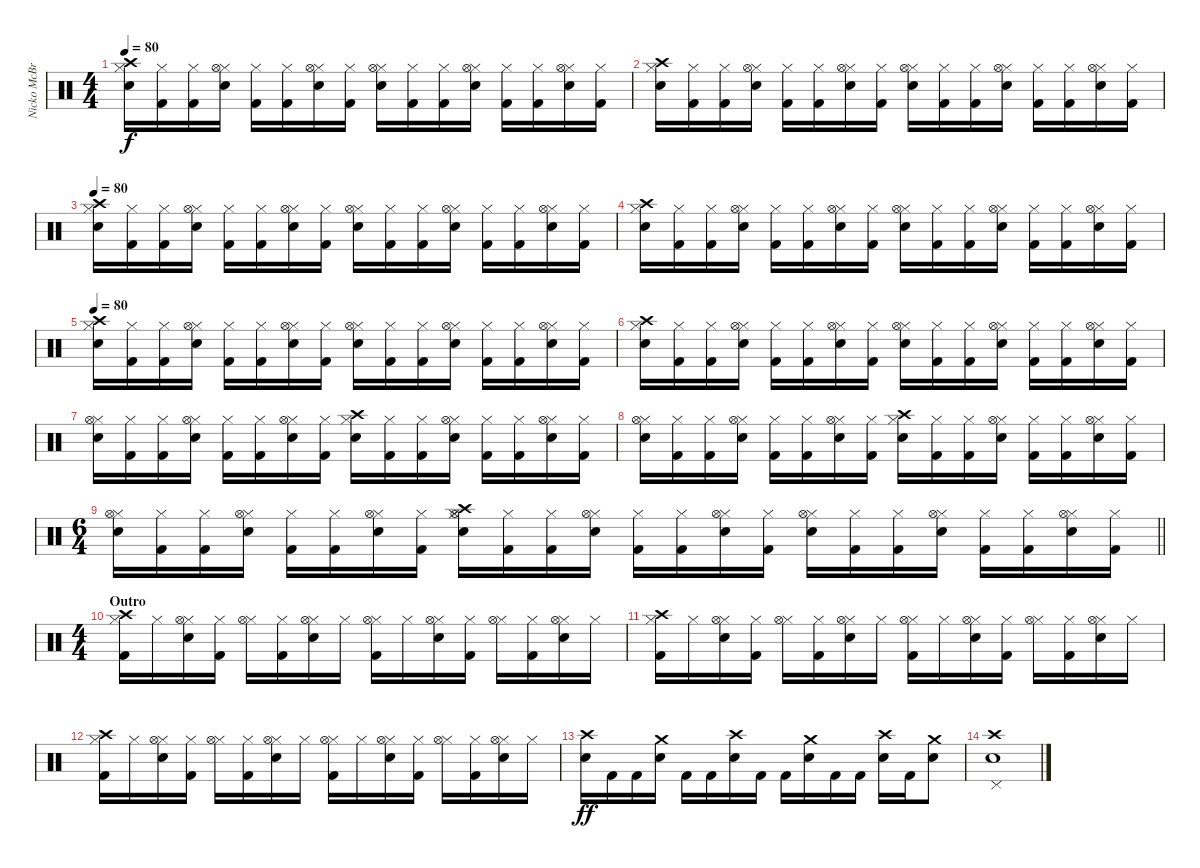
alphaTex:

\track ("Nicko McBrain" "Nicko McBr") {instrument percussion}
\staff {score}
\articulation defaults
\ts (4 4)
\tempo 80
\clef neutral
\ks c
("Snare (hit) 2" "Hi-Hat (closed)" "Crash high (hit)").16{dy f} ("Kick (hit) 2" "Hi-Hat (closed)").16 ("Kick (hit) 2" "Hi-Hat (closed)").16 ("Snare (hit) 2" "Hi-Hat (closed)" "Hi-Hat (open)").16 ("Kick (hit) 2" "Hi-Hat (closed)").16 ("Kick (hit) 2" "Hi-Hat (closed)").16 ("Snare (hit) 2" "Hi-Hat (closed)" "Hi-Hat (open)").16 ("Kick (hit) 2" "Hi-Hat (closed)").16 ("Snare (hit) 2" "Hi-Hat (closed)" "Hi-Hat (open)").16 ("Kick (hit) 2" "Hi-Hat (closed)").16 ("Kick (hit) 2" "Hi-Hat (closed)").16 ("Snare (hit) 2" "Hi-Hat (closed)" "Hi-Hat (open)").16 ("Kick (hit) 2" "Hi-Hat (closed)").16 ("Kick (hit) 2" "Hi-Hat (closed)").16 ("Snare (hit) 2" "Hi-Hat (closed)" "Hi-Hat (open)").16 ("Kick (hit) 2" "Hi-Hat (closed)").16 |
("Snare (hit) 2" "Hi-Hat (closed)" "Crash high (hit)").16 ("Kick (hit) 2" "Hi-Hat (closed)").16 ("Kick (hit) 2" "Hi-Hat (closed)").16 ("Snare (hit) 2" "Hi-Hat (closed)" "Hi-Hat (open)").16 ("Kick (hit) 2" "Hi-Hat (closed)").16 ("Kick (hit) 2" "Hi-Hat (closed)").16 ("Snare (hit) 2" "Hi-Hat (closed)" "Hi-Hat (open)").16 ("Kick (hit) 2" "Hi-Hat (closed)").16 ("Snare (hit) 2" "Hi-Hat (closed)" "Hi-Hat (open)").16 ("Kick (hit) 2" "Hi-Hat (closed)").16 ("Kick (hit) 2" "Hi-Hat (closed)").16 ("Snare (hit) 2" "Hi-Hat (closed)" "Hi-Hat (open)").16 ("Kick (hit) 2" "Hi-Hat (closed)").16 ("Kick (hit) 2" "Hi-Hat (closed)").16 ("Snare (hit) 2" "Hi-Hat (closed)" "Hi-Hat (open)").16 ("Kick (hit) 2" "Hi-Hat (closed)").16 |
\tempo 80
("Snare (hit) 2" "Hi-Hat (closed)" "Crash high (hit)").16 ("Kick (hit) 2" "Hi-Hat (closed)").16 ("Kick (hit) 2" "Hi-Hat (closed)").16 ("Snare (hit) 2" "Hi-Hat (closed)" "Hi-Hat (open)").16 ("Kick (hit) 2" "Hi-Hat (closed)").16 ("Kick (hit) 2" "Hi-Hat (closed)").16 ("Snare (hit) 2" "Hi-Hat (closed)" "Hi-Hat (open)").16 ("Kick (hit) 2" "Hi-Hat (closed)").16 ("Snare (hit) 2" "Hi-Hat (closed)" "Hi-Hat (open)").16 ("Kick (hit) 2" "Hi-Hat (closed)").16 ("Kick (hit) 2" "Hi-Hat (closed)").16 ("Snare (hit) 2" "Hi-Hat (closed)" "Hi-Hat (open)").16 ("Kick (hit) 2" "Hi-Hat (closed)").16 ("Kick (hit) 2" "Hi-Hat (closed)").16 ("Snare (hit) 2" "Hi-Hat (closed)" "Hi-Hat (open)").16 ("Kick (hit) 2" "Hi-Hat (closed)").16 |
("Snare (hit) 2" "Hi-Hat (closed)" "Crash high (hit)").16 ("Kick (hit) 2" "Hi-Hat (closed)").16 ("Kick (hit) 2" "Hi-Hat (closed)").16 ("Snare (hit) 2" "Hi-Hat (closed)" "Hi-Hat (open)").16 ("Kick (hit) 2" "Hi-Hat (closed)").16 ("Kick (hit) 2" "Hi-Hat (closed)").16 ("Snare (hit) 2" "Hi-Hat (closed)" "Hi-Hat (open)").16 ("Kick (hit) 2" "Hi-Hat (closed)").16 ("Snare (hit) 2" "Hi-Hat (closed)" "Hi-Hat (open)").16 ("Kick (hit) 2" "Hi-Hat (closed)").16 ("Kick (hit) 2" "Hi-Hat (closed)").16 ("Snare (hit) 2" "Hi-Hat (closed)" "Hi-Hat (open)").16 ("Kick (hit) 2" "Hi-Hat (closed)").16 ("Kick (hit) 2" "Hi-Hat (closed)").16 ("Snare (hit) 2" "Hi-Hat (closed)" "Hi-Hat (open)").16 ("Kick (hit) 2" "Hi-Hat (closed)").16 |
\tempo 80
("Snare (hit) 2" "Hi-Hat (closed)" "Crash high (hit)").16 ("Kick (hit) 2" "Hi-Hat (closed)").16 ("Kick (hit) 2" "Hi-Hat (closed)").16 ("Snare (hit) 2" "Hi-Hat (closed)" "Hi-Hat (open)").16 ("Kick (hit) 2" "Hi-Hat (closed)").16 ("Kick (hit) 2" "Hi-Hat (closed)").16 ("Snare (hit) 2" "Hi-Hat (closed)" "Hi-Hat (open)").16 ("Kick (hit) 2" "Hi-Hat (closed)").16 ("Snare (hit) 2" "Hi-Hat (closed)" "Hi-Hat (open)").16 ("Kick (hit) 2" "Hi-Hat (closed)").16 ("Kick (hit) 2" "Hi-Hat (closed)").16 ("Snare (hit) 2" "Hi-Hat (closed)" "Hi-Hat (open)").16 ("Kick (hit) 2" "Hi-Hat (closed)").16 ("Kick (hit) 2" "Hi-Hat (closed)").16 ("Snare (hit) 2" "Hi-Hat (closed)" "Hi-Hat (open)").16 ("Kick (hit) 2" "Hi-Hat (closed)").16 |
("Snare (hit) 2" "Hi-Hat (closed)" "Crash high (hit)").16 ("Kick (hit) 2" "Hi-Hat (closed)").16 ("Kick (hit) 2" "Hi-Hat (closed)").16 ("Snare (hit) 2" "Hi-Hat (closed)" "Hi-Hat (open)").16 ("Kick (hit) 2" "Hi-Hat (closed)").16 ("Kick (hit) 2" "Hi-Hat (closed)").16 ("Snare (hit) 2" "Hi-Hat (closed)" "Hi-Hat (open)").16 ("Kick (hit) 2" "Hi-Hat (closed)").16 ("Snare (hit) 2" "Hi-Hat (closed)" "Hi-Hat (open)").16 ("Kick (hit) 2" "Hi-Hat (closed)").16 ("Kick (hit) 2" "Hi-Hat (closed)").16 ("Snare (hit) 2" "Hi-Hat (closed)" "Hi-Hat (open)").16 ("Kick (hit) 2" "Hi-Hat (closed)").16 ("Kick (hit) 2" "Hi-Hat (closed)").16 ("Snare (hit) 2" "Hi-Hat (closed)" "Hi-Hat (open)").16 ("Kick (hit) 2" "Hi-Hat (closed)").16 |
("Snare (hit) 2" "Hi-Hat (closed)" "Hi-Hat (open)").16 ("Kick (hit) 2" "Hi-Hat (closed)").16 ("Kick (hit) 2" "Hi-Hat (closed)").16 ("Snare (hit) 2" "Hi-Hat (closed)" "Hi-Hat (open)").16 ("Kick (hit) 2" "Hi-Hat (closed)").16 ("Kick (hit) 2" "Hi-Hat (closed)").16 ("Snare (hit) 2" "Hi-Hat (closed)" "Hi-Hat (open)").16 ("Kick (hit) 2" "Hi-Hat (closed)").16 ("Snare (hit) 2" "Hi-Hat (closed)" "Crash high (hit)").16 ("Kick (hit) 2" "Hi-Hat (closed)").16 ("Kick (hit) 2" "Hi-Hat (closed)").16 ("Snare (hit) 2" "Hi-Hat (closed)" "Hi-Hat (open)").16 ("Kick (hit) 2" "Hi-Hat (closed)").16 ("Kick (hit) 2" "Hi-Hat (closed)").16 ("Snare (hit) 2" "Hi-Hat (closed)" "Hi-Hat (open)").16 ("Kick (hit) 2" "Hi-Hat (closed)").16 |
("Snare (hit) 2" "Hi-Hat (closed)" "Hi-Hat (open)").16 ("Kick (hit) 2" "Hi-Hat (closed)").16 ("Kick (hit) 2" "Hi-Hat (closed)").16 ("Snare (hit) 2" "Hi-Hat (closed)" "Hi-Hat (open)").16 ("Kick (hit) 2" "Hi-Hat (closed)").16 ("Kick (hit) 2" "Hi-Hat (closed)").16 ("Snare (hit) 2" "Hi-Hat (closed)" "Hi-Hat (open)").16 ("Kick (hit) 2" "Hi-Hat (closed)").16 ("Snare (hit) 2" "Hi-Hat (closed)" "Crash high (hit)").16 ("Kick (hit) 2" "Hi-Hat (closed)").16 ("Kick (hit) 2" "Hi-Hat (closed)").16 ("Snare (hit) 2" "Hi-Hat (closed)" "Hi-Hat (open)").16 ("Kick (hit) 2" "Hi-Hat (closed)").16 ("Kick (hit) 2" "Hi-Hat (closed)").16 ("Snare (hit) 2" "Hi-Hat (closed)" "Hi-Hat (open)").16 ("Kick (hit) 2" "Hi-Hat (closed)").16 |
\ts (6 4)
\barLineRight lightlight
("Snare (hit) 2" "Hi-Hat (closed)" "Hi-Hat (open)").16 ("Kick (hit) 2" "Hi-Hat (closed)").16 ("Kick (hit) 2" "Hi-Hat (closed)").16 ("Snare (hit) 2" "Hi-Hat (closed)" "Hi-Hat (open)").16 ("Kick (hit) 2" "Hi-Hat (closed)").16 ("Kick (hit) 2" "Hi-Hat (closed)").16 ("Snare (hit) 2" "Hi-Hat (closed)" "Hi-Hat (open)").16 ("Kick (hit) 2" "Hi-Hat (closed)").16 ("Snare (hit) 2" "Hi-Hat (closed)" "Hi-Hat (open)" "Crash high (hit)").16 ("Kick (hit) 2" "Hi-Hat (closed)").16 ("Kick (hit) 2" "Hi-Hat (closed)").16 ("Snare (hit) 2" "Hi-Hat (closed)" "Hi-Hat (open)").16 ("Kick (hit) 2" "Hi-Hat (closed)").16 ("Kick (hit) 2" "Hi-Hat (closed)").16 ("Snare (hit) 2" "Hi-Hat (closed)" "Hi-Hat (open)").16 ("Kick (hit) 2" "Hi-Hat (closed)").16 ("Snare (hit) 2" "Hi-Hat (closed)" "Hi-Hat (open)").16 ("Kick (hit) 2" "Hi-Hat (closed)").16 ("Kick (hit) 2" "Hi-Hat (closed)").16 ("Snare (hit) 2" "Hi-Hat (closed)" "Hi-Hat (open)").16 ("Kick (hit) 2" "Hi-Hat (closed)").16 ("Kick (hit) 2" "Hi-Hat (closed)").16 ("Snare (hit) 2" "Hi-Hat (closed)" "Hi-Hat (open)").16 ("Kick (hit) 2" "Hi-Hat (closed)").16 |
\ts (4 4)
\section ("" "Outro")
("Kick (hit) 2" "Hi-Hat (closed)" "Crash high (hit)").16 "Hi-Hat (closed)".16 ("Snare (hit) 2" "Hi-Hat (closed)" "Hi-Hat (open)").16 ("Kick (hit) 2" "Hi-Hat (closed)").16 ("Hi-Hat (closed)" "Hi-Hat (open)").16 ("Kick (hit) 2" "Hi-Hat (closed)").16 ("Snare (hit) 2" "Hi-Hat (closed)" "Hi-Hat (open)").16 "Hi-Hat (closed)".16 ("Kick (hit) 2" "Hi-Hat (closed)" "Hi-Hat (open)").16 "Hi-Hat (closed)".16 ("Snare (hit) 2" "Hi-Hat (closed)" "Hi-Hat (open)").16 ("Kick (hit) 2" "Hi-Hat (closed)").16 ("Hi-Hat (closed)" "Hi-Hat (open)").16 ("Kick (hit) 2" "Hi-Hat (closed)").16 ("Snare (hit) 2" "Hi-Hat (closed)" "Hi-Hat (open)").16 "Hi-Hat (closed)".16 |
("Kick (hit) 2" "Hi-Hat (closed)" "Crash high (hit)").16 "Hi-Hat (closed)".16 ("Snare (hit) 2" "Hi-Hat (closed)" "Hi-Hat (open)").16 ("Kick (hit) 2" "Hi-Hat (closed)").16 ("Hi-Hat (closed)" "Hi-Hat (open)").16 ("Kick (hit) 2" "Hi-Hat (closed)").16 ("Snare (hit) 2" "Hi-Hat (closed)" "Hi-Hat (open)").16 "Hi-Hat (closed)".16 ("Kick (hit) 2" "Hi-Hat (closed)" "Hi-Hat (open)").16 "Hi-Hat (closed)".16 ("Snare (hit) 2" "Hi-Hat (closed)" "Hi-Hat (open)").16 ("Kick (hit) 2" "Hi-Hat (closed)").16 ("Hi-Hat (closed)" "Hi-Hat (open)").16 ("Kick (hit) 2" "Hi-Hat (closed)").16 ("Snare (hit) 2" "Hi-Hat (closed)" "Hi-Hat (open)").16 "Hi-Hat (closed)".16 |
("Kick (hit) 2" "Hi-Hat (closed)" "Crash high (hit)").16 "Hi-Hat (closed)".16 ("Snare (hit) 2" "Hi-Hat (closed)" "Hi-Hat (open)").16 ("Kick (hit) 2" "Hi-Hat (closed)").16 ("Hi-Hat (closed)" "Hi-Hat (open)").16 ("Kick (hit) 2" "Hi-Hat (closed)").16 ("Snare (hit) 2" "Hi-Hat (closed)" "Hi-Hat (open)").16 "Hi-Hat (closed)".16 ("Kick (hit) 2" "Hi-Hat (closed)" "Hi-Hat (open)").16 "Hi-Hat (closed)".16 ("Snare (hit) 2" "Hi-Hat (closed)" "Hi-Hat (open)").16 ("Kick (hit) 2" "Hi-Hat (closed)").16 ("Hi-Hat (closed)" "Hi-Hat (open)").16 ("Kick (hit) 2" "Hi-Hat (closed)").16 ("Snare (hit) 2" "Hi-Hat (closed)" "Hi-Hat (open)").16 "Hi-Hat (closed)".16 |
("Snare (hit) 2" "Crash high (hit)").16{dy ff} "Kick (hit) 2".16 "Kick (hit) 2".16 ("Snare (hit) 2" "Crash medium (hit)").16 "Kick (hit) 2".16 "Kick (hit) 2".16 ("Snare (hit) 2" "Crash high (hit)").16 "Kick (hit) 2".16 "Kick (hit) 2".16 ("Snare (hit) 2" "Crash medium (hit)").16 "Kick (hit) 2".16 "Kick (hit) 2".16 ("Snare (hit) 2" "Crash high (hit)").16 "Kick (hit) 2".16 ("Snare (hit) 2" "Crash medium (hit)").8 |
("Snare (hit) 2" "Pedal Hi-Hat (hit)" "Crash high (hit)").1
